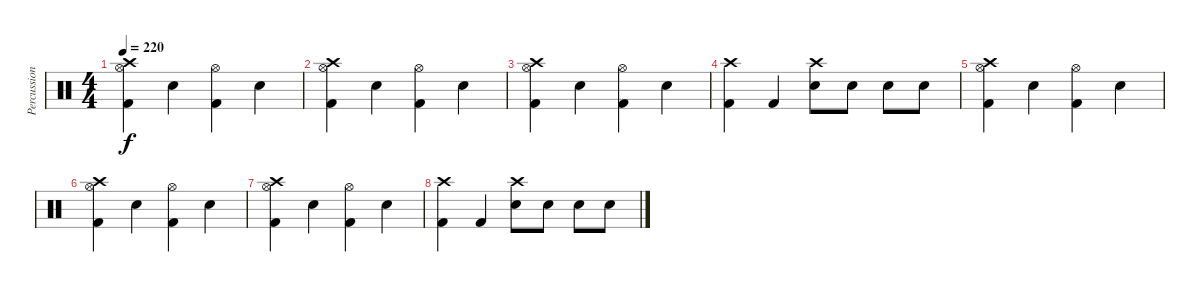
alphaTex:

\track ("Percussion" "Percussion") {instrument percussion}
\staff {score}
\articulation defaults
\ts (4 4)
\tempo 220
\clef neutral
\ks c
("Crash high (hit)" "Hi-Hat (open)" "Kick (hit) 2").4{dy f volume 7} "Snare (hit) 2".4 ("Hi-Hat (open)" "Kick (hit) 2").4 "Snare (hit) 2".4 |
("Crash high (hit)" "Hi-Hat (open)" "Kick (hit) 2").4{volume 5} "Snare (hit) 2".4 ("Hi-Hat (open)" "Kick (hit) 2").4 "Snare (hit) 2".4 |
("Crash high (hit)" "Hi-Hat (open)" "Kick (hit) 2").4{volume 3} "Snare (hit) 2".4 ("Hi-Hat (open)" "Kick (hit) 2").4 "Snare (hit) 2".4 |
("Crash high (hit)" "Kick (hit) 2").4{volume 2} "Kick (hit) 2".4 ("Crash high (hit)" "Snare (hit) 2").8 "Snare (hit) 2".8 "Snare (hit) 2".8 "Snare (hit) 2".8 |
("Crash high (hit)" "Hi-Hat (open)" "Kick (hit) 2").4{volume 2} "Snare (hit) 2".4 ("Hi-Hat (open)" "Kick (hit) 2").4 "Snare (hit) 2".4 |
("Crash high (hit)" "Hi-Hat (open)" "Kick (hit) 2").4{volume 2} "Snare (hit) 2".4 ("Hi-Hat (open)" "Kick (hit) 2").4 "Snare (hit) 2".4 |
("Crash high (hit)" "Hi-Hat (open)" "Kick (hit) 2").4{volume 1} "Snare (hit) 2".4 ("Hi-Hat (open)" "Kick (hit) 2").4 "Snare (hit) 2".4 |
("Crash high (hit)" "Kick (hit) 2").4{volume 0} "Kick (hit) 2".4 ("Crash high (hit)" "Snare (hit) 2").8 "Snare (hit) 2".8 "Snare (hit) 2".8 "Snare (hit) 2".8
